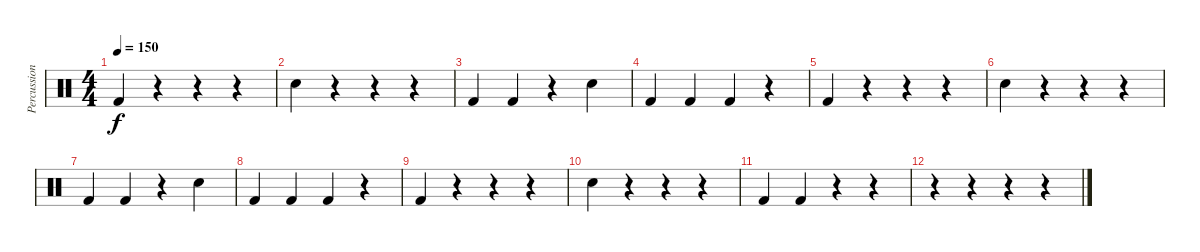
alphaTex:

\track ("Percussion" "Percussion") {instrument percussion}
\staff {score}
\articulation defaults
\ts (4 4)
\tempo 150
\clef neutral
\ks c "Kick (hit) 2".4{dy f}
r.4 r.4 r.4 |
"Electric Snare (hit)".4 r.4 r.4 r.4 |
"Kick (hit) 2".4 "Kick (hit) 2".4 r.4 "Electric Snare (hit)".4 |
"Kick (hit) 2".4 "Kick (hit) 2".4 "Kick (hit) 2".4 r.4 |
"Kick (hit) 2".4 r.4 r.4 r.4 |
"Electric Snare (hit)".4 r.4 r.4 r.4 |
"Kick (hit) 2".4 "Kick (hit) 2".4 r.4 "Electric Snare (hit)".4 |
"Kick (hit) 2".4 "Kick (hit) 2".4 "Kick (hit) 2".4 r.4 |
"Kick (hit) 2".4 r.4 r.4 r.4 |
"Electric Snare (hit)".4 r.4 r.4 r.4 |
"Kick (hit) 2".4 "Kick (hit) 2".4 r.4 r.4 |
r.4 r.4 r.4 r.4
